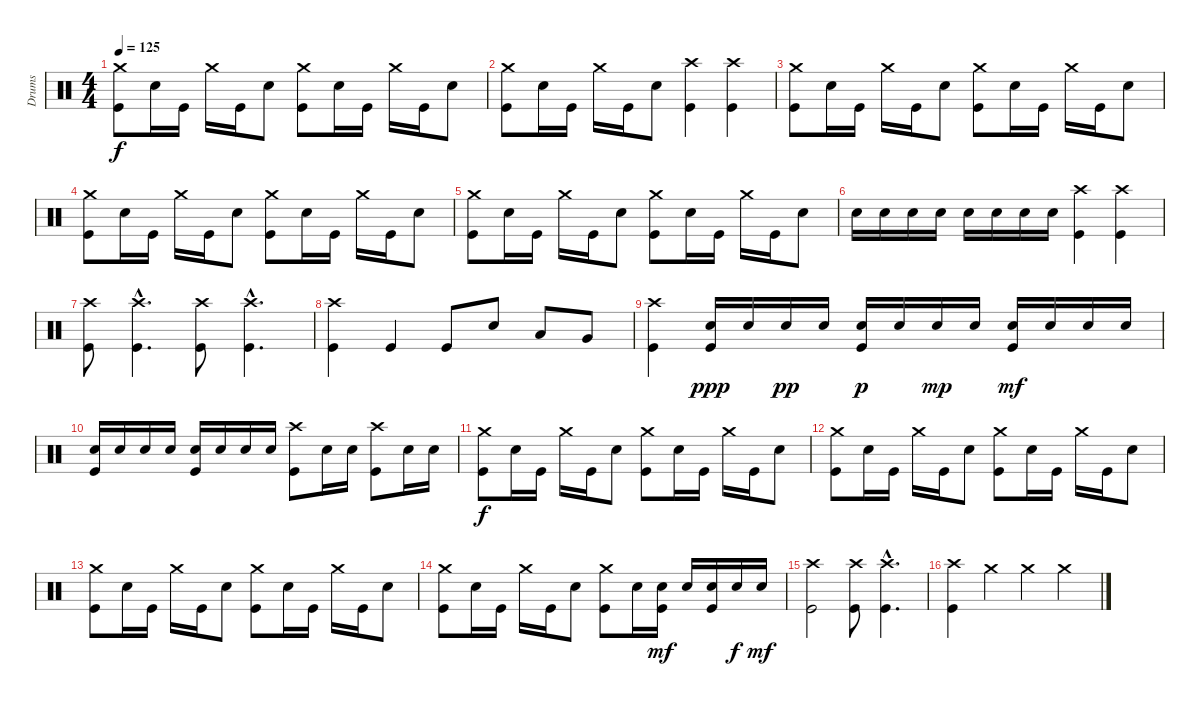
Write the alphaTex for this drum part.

\track ("Drums" "Drums") {instrument percussion}
\staff {score}
\articulation defaults
\ts (4 4)
\tempo 125
\clef neutral
\ks c
("Kick (hit)" "Crash medium (hit)").8{dy f} "Snare (hit) 2".16 "Kick (hit)".16 "Crash medium (hit)".16 "Kick (hit)".16 "Snare (hit) 2".8 ("Kick (hit)" "Crash medium (hit)").8 "Snare (hit) 2".16 "Kick (hit)".16 "Crash medium (hit)".16 "Kick (hit)".16 "Snare (hit) 2".8 |
("Kick (hit)" "Crash medium (hit)").8 "Snare (hit) 2".16 "Kick (hit)".16 "Crash medium (hit)".16 "Kick (hit)".16 "Snare (hit) 2".8 ("Kick (hit)" "Crash high (hit)").4 ("Kick (hit)" "Crash high (hit)").4 |
("Kick (hit)" "Crash medium (hit)").8 "Snare (hit) 2".16 "Kick (hit)".16 "Crash medium (hit)".16 "Kick (hit)".16 "Snare (hit) 2".8 ("Kick (hit)" "Crash medium (hit)").8 "Snare (hit) 2".16 "Kick (hit)".16 "Crash medium (hit)".16 "Kick (hit)".16 "Snare (hit) 2".8 |
("Kick (hit)" "Crash medium (hit)").8 "Snare (hit) 2".16 "Kick (hit)".16 "Crash medium (hit)".16 "Kick (hit)".16 "Snare (hit) 2".8 ("Kick (hit)" "Crash medium (hit)").8 "Snare (hit) 2".16 "Kick (hit)".16 "Crash medium (hit)".16 "Kick (hit)".16 "Snare (hit) 2".8 |
("Kick (hit)" "Crash medium (hit)").8 "Snare (hit) 2".16 "Kick (hit)".16 "Crash medium (hit)".16 "Kick (hit)".16 "Snare (hit) 2".8 ("Kick (hit)" "Crash medium (hit)").8 "Snare (hit) 2".16 "Kick (hit)".16 "Crash medium (hit)".16 "Kick (hit)".16 "Snare (hit) 2".8 |
"Snare (hit) 2".16 "Snare (hit) 2".16 "Snare (hit) 2".16 "Snare (hit) 2".16 "Snare (hit) 2".16 "Snare (hit) 2".16 "Snare (hit) 2".16 "Snare (hit) 2".16 ("Kick (hit)" "Crash high (hit)").4 ("Kick (hit)" "Crash high (hit)").4 |
("Kick (hit)" "Crash high (hit)").8 ("Kick (hit)"{hac} "Crash high (hit)"{hac}).4{d} ("Kick (hit)" "Crash high (hit)").8 ("Kick (hit)"{hac} "Crash high (hit)"{hac}).4{d} |
("Kick (hit)" "Crash high (hit)").4 "Kick (hit)".4 "Kick (hit)".8 "Snare (hit) 2".8 "Low Tom (hit)".8 "Very Low Tom (hit)".8 |
("Kick (hit)" "Crash high (hit)").4 ("Kick (hit)" "Snare (hit) 2").16{dy ppp} "Snare (hit) 2".16 "Snare (hit) 2".16{dy pp} "Snare (hit) 2".16 ("Kick (hit)" "Snare (hit) 2").16{dy p} "Snare (hit) 2".16 "Snare (hit) 2".16{dy mp} "Snare (hit) 2".16 ("Kick (hit)" "Snare (hit) 2").16{dy mf} "Snare (hit) 2".16 "Snare (hit) 2".16 "Snare (hit) 2".16 |
("Kick (hit)" "Snare (hit) 2").16 "Snare (hit) 2".16 "Snare (hit) 2".16 "Snare (hit) 2".16 ("Kick (hit)" "Snare (hit) 2").16 "Snare (hit) 2".16 "Snare (hit) 2".16 "Snare (hit) 2".16 ("Kick (hit)" "Crash high (hit)").8 "Snare (hit) 2".16 "Snare (hit) 2".16 ("Kick (hit)" "Crash high (hit)").8 "Snare (hit) 2".16 "Snare (hit) 2".16 |
("Kick (hit)" "Crash medium (hit)").8{dy f} "Snare (hit) 2".16 "Kick (hit)".16 "Crash medium (hit)".16 "Kick (hit)".16 "Snare (hit) 2".8 ("Kick (hit)" "Crash medium (hit)").8 "Snare (hit) 2".16 "Kick (hit)".16 "Crash medium (hit)".16 "Kick (hit)".16 "Snare (hit) 2".8 |
("Kick (hit)" "Crash medium (hit)").8 "Snare (hit) 2".16 "Kick (hit)".16 "Crash medium (hit)".16 "Kick (hit)".16 "Snare (hit) 2".8 ("Kick (hit)" "Crash medium (hit)").8 "Snare (hit) 2".16 "Kick (hit)".16 "Crash medium (hit)".16 "Kick (hit)".16 "Snare (hit) 2".8 |
("Kick (hit)" "Crash medium (hit)").8 "Snare (hit) 2".16 "Kick (hit)".16 "Crash medium (hit)".16 "Kick (hit)".16 "Snare (hit) 2".8 ("Kick (hit)" "Crash medium (hit)").8 "Snare (hit) 2".16 "Kick (hit)".16 "Crash medium (hit)".16 "Kick (hit)".16 "Snare (hit) 2".8 |
("Kick (hit)" "Crash medium (hit)").8 "Snare (hit) 2".16 "Kick (hit)".16 "Crash medium (hit)".16 "Kick (hit)".16 "Snare (hit) 2".8 ("Kick (hit)" "Crash medium (hit)").8 "Snare (hit) 2".16 ("Kick (hit)" "Snare (hit) 2").16{dy mf} "Snare (hit) 2".16 ("Kick (hit)" "Snare (hit) 2").16 "Snare (hit) 2".16{dy f} "Snare (hit) 2".16{dy mf} |
("Kick (hit)" "Crash high (hit)").2 ("Kick (hit)" "Crash high (hit)").8 ("Kick (hit)"{hac} "Crash high (hit)"{hac}).4{d} |
("Kick (hit)" "Crash high (hit)").4 "Crash medium (hit)".4 "Crash medium (hit)".4 "Crash medium (hit)".4
